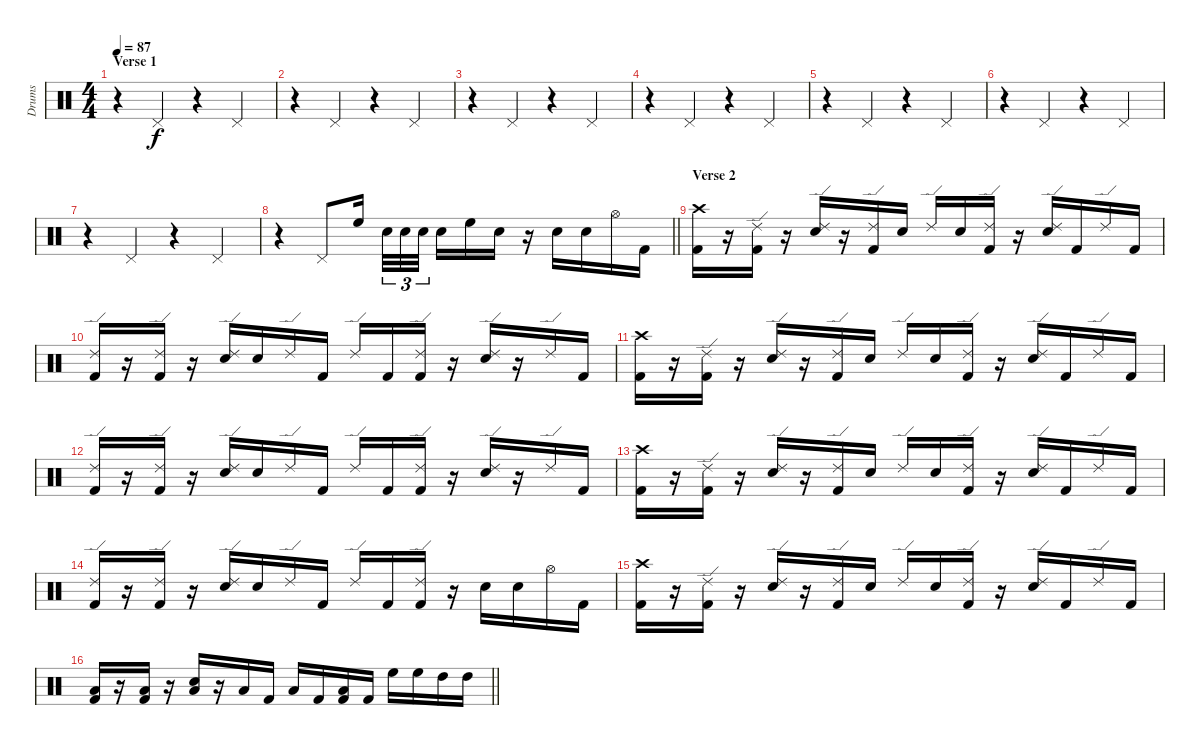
\track ("Drums" "Drums") {instrument percussion}
\staff {score}
\articulation defaults
\ts (4 4)
\section ("" "Verse 1")
\tempo 87
\clef neutral
\ks c
r.4{dy f} "Pedal Hi-Hat (hit)".4 r.4 "Pedal Hi-Hat (hit)".4 |
r.4 "Pedal Hi-Hat (hit)".4 r.4 "Pedal Hi-Hat (hit)".4 |
r.4 "Pedal Hi-Hat (hit)".4 r.4 "Pedal Hi-Hat (hit)".4 |
r.4 "Pedal Hi-Hat (hit)".4 r.4 "Pedal Hi-Hat (hit)".4 |
r.4 "Pedal Hi-Hat (hit)".4 r.4 "Pedal Hi-Hat (hit)".4 |
r.4 "Pedal Hi-Hat (hit)".4 r.4 "Pedal Hi-Hat (hit)".4 |
r.4 "Pedal Hi-Hat (hit)".4 r.4 "Pedal Hi-Hat (hit)".4 |
\barLineRight lightlight
r.4 "Pedal Hi-Hat (hit)".8 "High Floor Tom (hit)".16{beam splitsecondary} "Snare (hit) 2".32{tu (3 2)} "Snare (hit) 2".32{tu (3 2)} "Snare (hit) 2".32{tu (3 2)} "Snare (hit) 2".16 "High Floor Tom (hit)".16 "Snare (hit) 2".16 r.16 "Snare (hit) 2".16 "Snare (hit) 2".16 "Hi-Hat (open)".16 "Kick (hit) 2".16 |
\section ("" "Verse 2")
("Crash high (hit)" "Kick (hit) 2").16 r.16 ("Ride (edge) 2" "Kick (hit) 2").16 r.16 ("Ride (edge) 2" "Snare (hit) 2").16 r.16 ("Ride (edge) 2" "Kick (hit) 2").16 "Snare (hit) 2".16 "Ride (edge) 2".16 "Snare (hit) 2".16 ("Ride (edge) 2" "Kick (hit) 2").16 r.16 ("Ride (edge) 2" "Snare (hit) 2").16 "Kick (hit) 2".16 "Ride (edge) 2".16 "Kick (hit) 2".16 |
("Ride (edge) 2" "Kick (hit) 2").16 r.16 ("Ride (edge) 2" "Kick (hit) 2").16 r.16 ("Ride (edge) 2" "Snare (hit) 2").16 "Snare (hit) 2".16 "Ride (edge) 2".16 "Kick (hit) 2".16 "Ride (edge) 2".16 "Kick (hit) 2".16 ("Ride (edge) 2" "Kick (hit) 2").16 r.16 ("Ride (edge) 2" "Snare (hit) 2").16 r.16 "Ride (edge) 2".16 "Kick (hit) 2".16 |
("Crash high (hit)" "Kick (hit) 2").16 r.16 ("Ride (edge) 2" "Kick (hit) 2").16 r.16 ("Ride (edge) 2" "Snare (hit) 2").16 r.16 ("Ride (edge) 2" "Kick (hit) 2").16 "Snare (hit) 2".16 "Ride (edge) 2".16 "Snare (hit) 2".16 ("Ride (edge) 2" "Kick (hit) 2").16 r.16 ("Ride (edge) 2" "Snare (hit) 2").16 "Kick (hit) 2".16 "Ride (edge) 2".16 "Kick (hit) 2".16 |
("Ride (edge) 2" "Kick (hit) 2").16 r.16 ("Ride (edge) 2" "Kick (hit) 2").16 r.16 ("Ride (edge) 2" "Snare (hit) 2").16 "Snare (hit) 2".16 "Ride (edge) 2".16 "Kick (hit) 2".16 "Ride (edge) 2".16 "Kick (hit) 2".16 ("Ride (edge) 2" "Kick (hit) 2").16 r.16 ("Ride (edge) 2" "Snare (hit) 2").16 r.16 "Ride (edge) 2".16 "Kick (hit) 2".16 |
("Crash high (hit)" "Kick (hit) 2").16 r.16 ("Ride (edge) 2" "Kick (hit) 2").16 r.16 ("Ride (edge) 2" "Snare (hit) 2").16 r.16 ("Ride (edge) 2" "Kick (hit) 2").16 "Snare (hit) 2".16 "Ride (edge) 2".16 "Snare (hit) 2".16 ("Ride (edge) 2" "Kick (hit) 2").16 r.16 ("Ride (edge) 2" "Snare (hit) 2").16 "Kick (hit) 2".16 "Ride (edge) 2".16 "Kick (hit) 2".16 |
("Ride (edge) 2" "Kick (hit) 2").16 r.16 ("Ride (edge) 2" "Kick (hit) 2").16 r.16 ("Ride (edge) 2" "Snare (hit) 2").16 "Snare (hit) 2".16 "Ride (edge) 2".16 "Kick (hit) 2".16 "Ride (edge) 2".16 "Kick (hit) 2".16 ("Ride (edge) 2" "Kick (hit) 2").16 r.16 "Snare (hit) 2".16 "Snare (hit) 2".16 "Hi-Hat (open)".16 "Kick (hit) 2".16 |
("Crash high (hit)" "Kick (hit) 2").16 r.16 ("Ride (edge) 2" "Kick (hit) 2").16 r.16 ("Ride (edge) 2" "Snare (hit) 2").16 r.16 ("Ride (edge) 2" "Kick (hit) 2").16 "Snare (hit) 2".16 "Ride (edge) 2".16 "Snare (hit) 2".16 ("Ride (edge) 2" "Kick (hit) 2").16 r.16 ("Ride (edge) 2" "Snare (hit) 2").16 "Kick (hit) 2".16 "Ride (edge) 2".16 "Kick (hit) 2".16 |
\barLineRight lightlight
("Low Floor Tom (hit)" "Kick (hit) 2").16 r.16 ("Low Floor Tom (hit)" "Kick (hit) 2").16 r.16 ("Snare (hit) 2" "Low Floor Tom (hit)").16 r.16 "Low Floor Tom (hit)".16 "Kick (hit) 2".16 "Low Floor Tom (hit)".16 "Kick (hit) 2".16 ("Low Floor Tom (hit)" "Kick (hit) 2").16 "Kick (hit) 2".16 "High Floor Tom (hit)".16 "High Floor Tom (hit)".16 "High Tom (hit)".16 "High Tom (hit)".16
